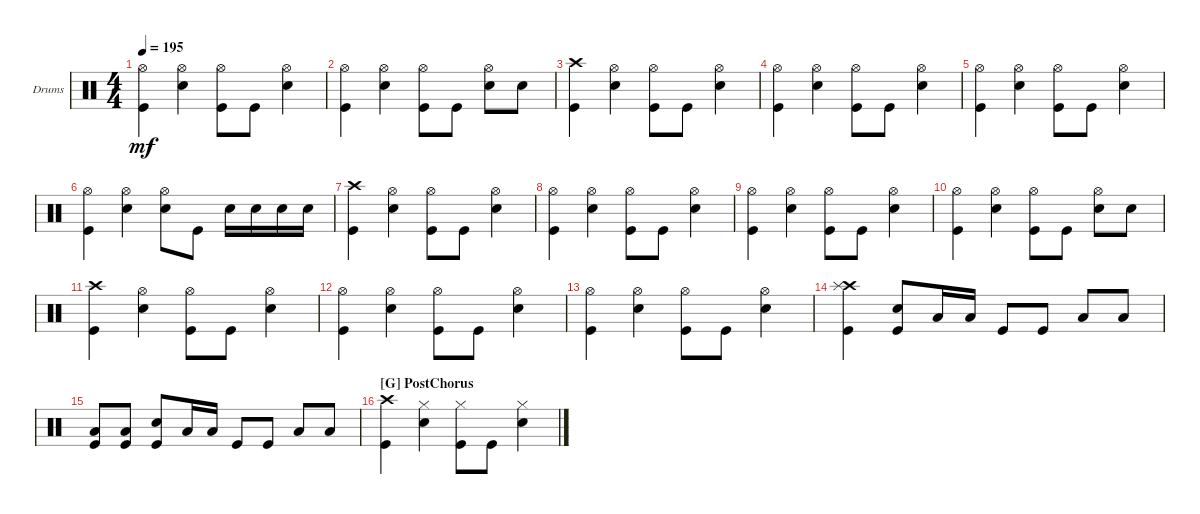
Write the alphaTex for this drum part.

\defaultSystemsLayout 4
\bracketExtendMode groupsimilarinstruments
\firstSystemTrackNameOrientation horizontal
\otherSystemsTrackNameOrientation horizontal
\track ("Drumkit" "Drums") {instrument percussion}
\staff {score}
\articulation defaults
\ts (4 4)
\tempo 195
\clef neutral
\ks c
("Kick (hit)" "Hi-Hat (open)").4{dy mf} ("Snare (hit) 2" "Hi-Hat (open)").4 ("Kick (hit)" "Hi-Hat (open)").8 "Kick (hit)".8 ("Snare (hit) 2" "Hi-Hat (open)").4 |
("Kick (hit)" "Hi-Hat (open)").4 ("Snare (hit) 2" "Hi-Hat (open)").4 ("Kick (hit)" "Hi-Hat (open)").8 "Kick (hit)".8 ("Snare (hit) 2" "Hi-Hat (open)").8 "Snare (hit) 2".8 |
("Kick (hit)" "Crash high (hit)").4 ("Snare (hit) 2" "Hi-Hat (open)").4 ("Kick (hit)" "Hi-Hat (open)").8 "Kick (hit)".8 ("Snare (hit) 2" "Hi-Hat (open)").4 |
("Kick (hit)" "Hi-Hat (open)").4 ("Snare (hit) 2" "Hi-Hat (open)").4 ("Kick (hit)" "Hi-Hat (open)").8 "Kick (hit)".8 ("Snare (hit) 2" "Hi-Hat (open)").4 |
("Kick (hit)" "Hi-Hat (open)").4 ("Snare (hit) 2" "Hi-Hat (open)").4 ("Kick (hit)" "Hi-Hat (open)").8 "Kick (hit)".8 ("Snare (hit) 2" "Hi-Hat (open)").4 |
("Kick (hit)" "Hi-Hat (open)").4 ("Snare (hit) 2" "Hi-Hat (open)").4 ("Hi-Hat (open)" "Snare (hit) 2").8 "Kick (hit)".8 "Snare (hit) 2".16 "Snare (hit) 2".16 "Snare (hit) 2".16 "Snare (hit) 2".16 |
("Kick (hit)" "Crash high (hit)").4 ("Snare (hit) 2" "Hi-Hat (open)").4 ("Kick (hit)" "Hi-Hat (open)").8 "Kick (hit)".8 ("Snare (hit) 2" "Hi-Hat (open)").4 |
("Kick (hit)" "Hi-Hat (open)").4 ("Snare (hit) 2" "Hi-Hat (open)").4 ("Kick (hit)" "Hi-Hat (open)").8 "Kick (hit)".8 ("Snare (hit) 2" "Hi-Hat (open)").4 |
("Kick (hit)" "Hi-Hat (open)").4 ("Snare (hit) 2" "Hi-Hat (open)").4 ("Kick (hit)" "Hi-Hat (open)").8 "Kick (hit)".8 ("Snare (hit) 2" "Hi-Hat (open)").4 |
("Kick (hit)" "Hi-Hat (open)").4 ("Snare (hit) 2" "Hi-Hat (open)").4 ("Kick (hit)" "Hi-Hat (open)").8 "Kick (hit)".8 ("Snare (hit) 2" "Hi-Hat (open)").8 "Snare (hit) 2".8 |
("Kick (hit)" "Crash high (hit)").4 ("Snare (hit) 2" "Hi-Hat (open)").4 ("Kick (hit)" "Hi-Hat (open)").8 "Kick (hit)".8 ("Snare (hit) 2" "Hi-Hat (open)").4 |
("Kick (hit)" "Hi-Hat (open)").4 ("Snare (hit) 2" "Hi-Hat (open)").4 ("Kick (hit)" "Hi-Hat (open)").8 "Kick (hit)".8 ("Snare (hit) 2" "Hi-Hat (open)").4 |
("Kick (hit)" "Hi-Hat (open)").4 ("Snare (hit) 2" "Hi-Hat (open)").4 ("Kick (hit)" "Hi-Hat (open)").8 "Kick (hit)".8 ("Snare (hit) 2" "Hi-Hat (open)").4 |
("Kick (hit)" "Crash high (hit)" "Splash (hit)").4 ("Snare (hit) 2" "Kick (hit)").8 "Low Tom (hit)".16 "Low Tom (hit)".16 "Kick (hit)".8 "Kick (hit)".8 "Low Tom (hit)".8 "Low Tom (hit)".8 |
("Kick (hit)" "Low Tom (hit)").8 ("Kick (hit)" "Low Tom (hit)").8 ("Snare (hit) 2" "Kick (hit)").8 "Low Tom (hit)".16 "Low Tom (hit)".16 "Kick (hit)".8 "Kick (hit)".8 "Low Tom (hit)".8 "Low Tom (hit)".8 |
\section ("G" "PostChorus")
("Crash high (hit)" "Kick (hit)").4 ("Snare (hit) 2" "Hi-Hat (closed)").4 ("Kick (hit)" "Hi-Hat (closed)").8 "Kick (hit)".8 ("Snare (hit) 2" "Hi-Hat (closed)").4
